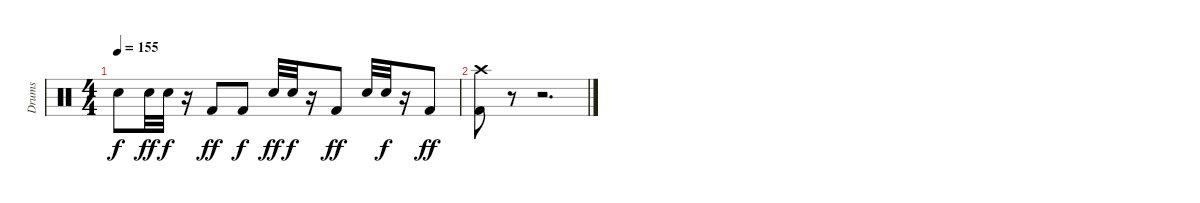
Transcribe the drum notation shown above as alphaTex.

\track ("Drums" "Drums") {instrument percussion}
\staff {score}
\articulation defaults
\ts (4 4)
\tempo 155
\clef neutral
\ks c "Snare (hit) 2".8{dy f} "Snare (hit) 2".32{dy ff} "Snare (hit) 2".32{dy f}
r.16 "Kick (hit) 2".8{dy ff} "Kick (hit) 2".8{dy f} "Snare (hit) 2".32{dy ff} "Snare (hit) 2".32{dy f} r.16 "Kick (hit) 2".8{dy ff} "Snare (hit) 2".32 "Snare (hit) 2".32{dy f} r.16 "Kick (hit) 2".8{dy ff} |
("Crash high (hit)" "Kick (hit) 2").8 r.8 r.2{d}
